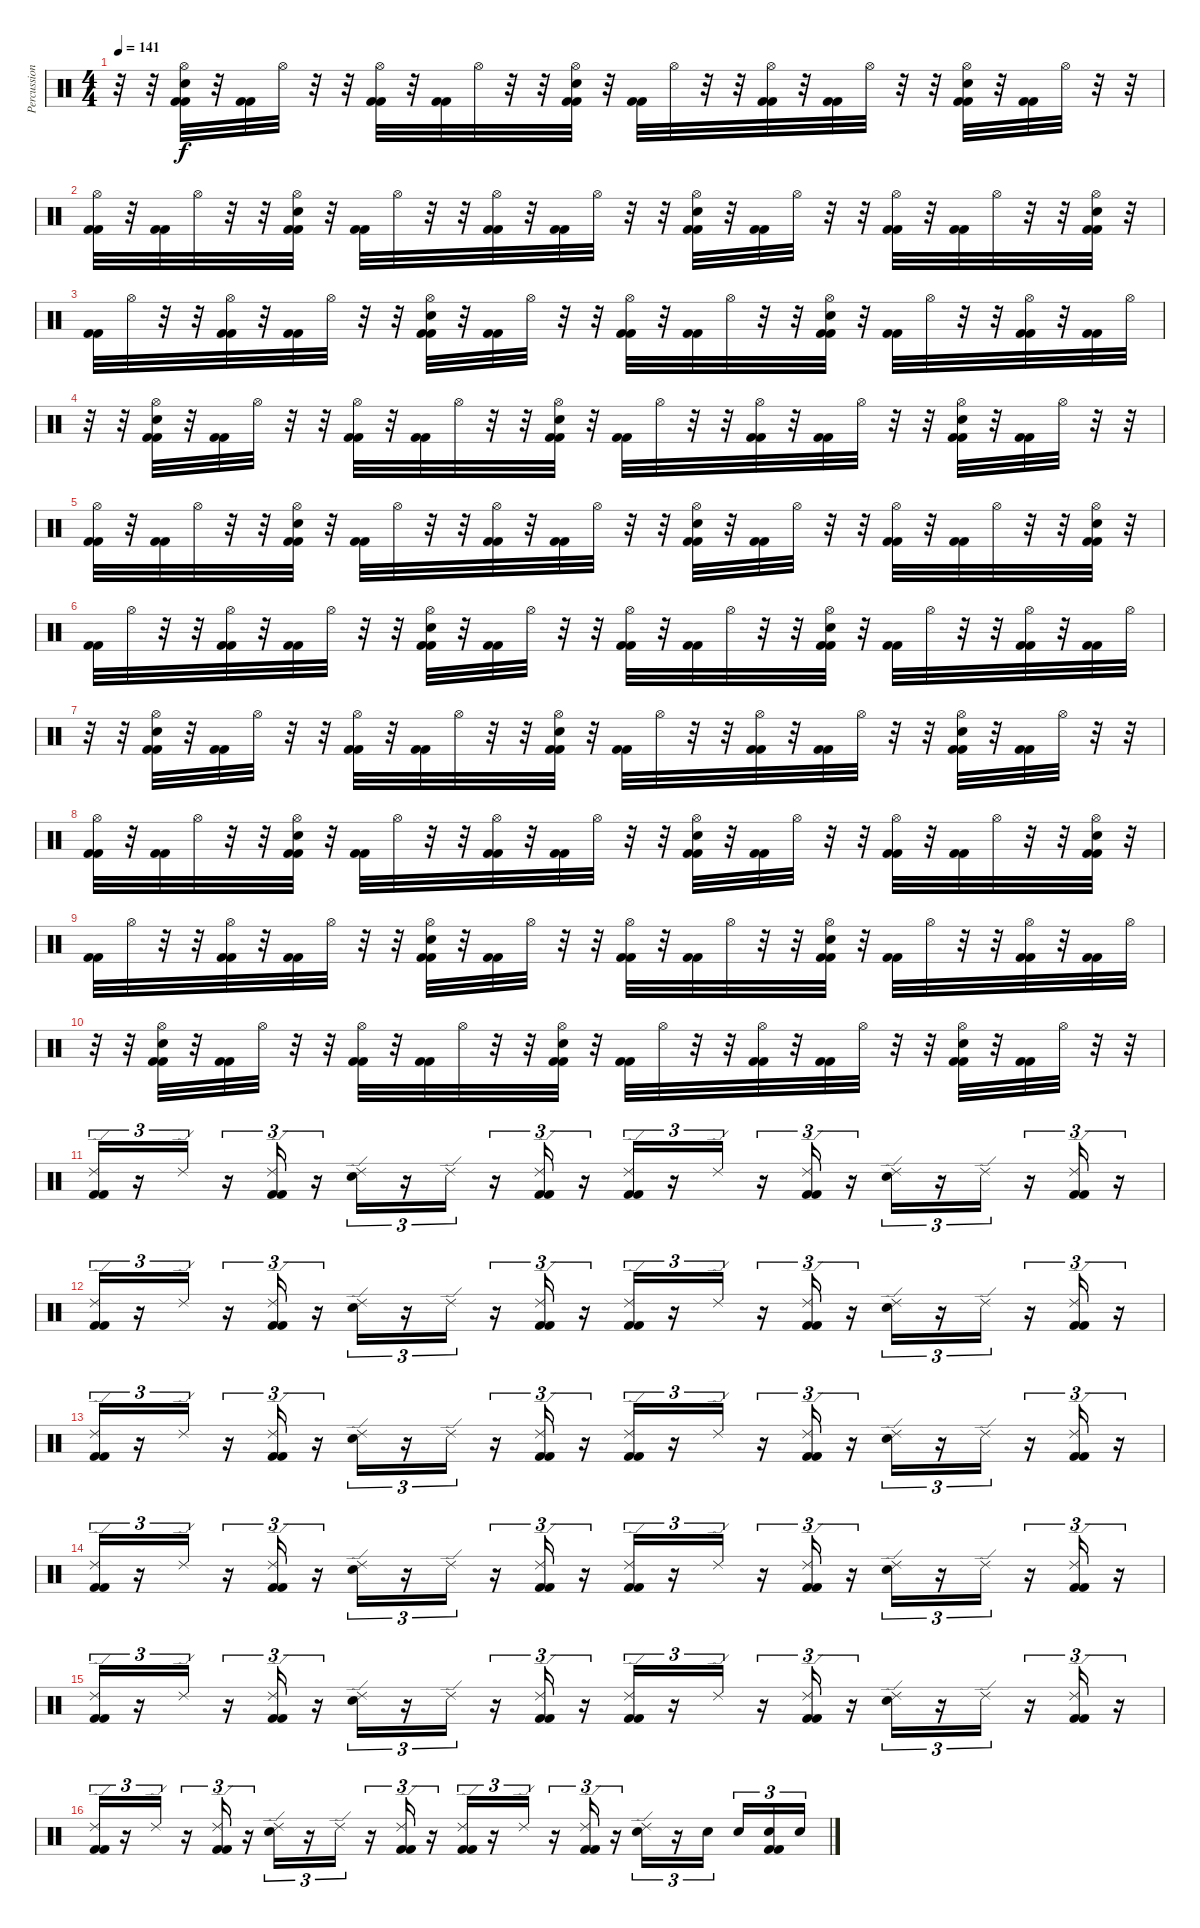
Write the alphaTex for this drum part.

\track ("Percussions" "Percussion") {instrument percussion}
\staff {score}
\articulation defaults
\ts (4 4)
\tempo 141
\clef neutral
\ks c
r.32{dy f} r.32 ("Hi-Hat (open)" "Snare (hit) 2" "Kick (hit) 2" "Kick (hit) 2").32 r.32 ("Kick (hit) 2" "Kick (hit) 2").32 "Hi-Hat (open)".32 r.32 r.32 ("Hi-Hat (open)" "Kick (hit) 2" "Kick (hit) 2").32 r.32 ("Kick (hit) 2" "Kick (hit) 2").32 "Hi-Hat (open)".32 r.32 r.32 ("Hi-Hat (open)" "Snare (hit) 2" "Kick (hit) 2" "Kick (hit) 2").32 r.32 ("Kick (hit) 2" "Kick (hit) 2").32 "Hi-Hat (open)".32 r.32 r.32 ("Hi-Hat (open)" "Kick (hit) 2" "Kick (hit) 2").32 r.32 ("Kick (hit) 2" "Kick (hit) 2").32 "Hi-Hat (open)".32 r.32 r.32 ("Hi-Hat (open)" "Snare (hit) 2" "Kick (hit) 2" "Kick (hit) 2").32 r.32 ("Kick (hit) 2" "Kick (hit) 2").32 "Hi-Hat (open)".32 r.32 r.32 |
("Hi-Hat (open)" "Kick (hit) 2" "Kick (hit) 2").32 r.32 ("Kick (hit) 2" "Kick (hit) 2").32 "Hi-Hat (open)".32 r.32 r.32 ("Hi-Hat (open)" "Snare (hit) 2" "Kick (hit) 2" "Kick (hit) 2").32 r.32 ("Kick (hit) 2" "Kick (hit) 2").32 "Hi-Hat (open)".32 r.32 r.32 ("Hi-Hat (open)" "Kick (hit) 2" "Kick (hit) 2").32 r.32 ("Kick (hit) 2" "Kick (hit) 2").32 "Hi-Hat (open)".32 r.32 r.32 ("Hi-Hat (open)" "Snare (hit) 2" "Kick (hit) 2" "Kick (hit) 2").32 r.32 ("Kick (hit) 2" "Kick (hit) 2").32 "Hi-Hat (open)".32 r.32 r.32 ("Hi-Hat (open)" "Kick (hit) 2" "Kick (hit) 2").32 r.32 ("Kick (hit) 2" "Kick (hit) 2").32 "Hi-Hat (open)".32 r.32 r.32 ("Hi-Hat (open)" "Snare (hit) 2" "Kick (hit) 2" "Kick (hit) 2").32 r.32 |
("Kick (hit) 2" "Kick (hit) 2").32 "Hi-Hat (open)".32 r.32 r.32 ("Hi-Hat (open)" "Kick (hit) 2" "Kick (hit) 2").32 r.32 ("Kick (hit) 2" "Kick (hit) 2").32 "Hi-Hat (open)".32 r.32 r.32 ("Hi-Hat (open)" "Snare (hit) 2" "Kick (hit) 2" "Kick (hit) 2").32 r.32 ("Kick (hit) 2" "Kick (hit) 2").32 "Hi-Hat (open)".32 r.32 r.32 ("Hi-Hat (open)" "Kick (hit) 2" "Kick (hit) 2").32 r.32 ("Kick (hit) 2" "Kick (hit) 2").32 "Hi-Hat (open)".32 r.32 r.32 ("Hi-Hat (open)" "Snare (hit) 2" "Kick (hit) 2" "Kick (hit) 2").32 r.32 ("Kick (hit) 2" "Kick (hit) 2").32 "Hi-Hat (open)".32 r.32 r.32 ("Hi-Hat (open)" "Kick (hit) 2" "Kick (hit) 2").32 r.32 ("Kick (hit) 2" "Kick (hit) 2").32 "Hi-Hat (open)".32 |
r.32 r.32 ("Hi-Hat (open)" "Snare (hit) 2" "Kick (hit) 2" "Kick (hit) 2").32 r.32 ("Kick (hit) 2" "Kick (hit) 2").32 "Hi-Hat (open)".32 r.32 r.32 ("Hi-Hat (open)" "Kick (hit) 2" "Kick (hit) 2").32 r.32 ("Kick (hit) 2" "Kick (hit) 2").32 "Hi-Hat (open)".32 r.32 r.32 ("Hi-Hat (open)" "Snare (hit) 2" "Kick (hit) 2" "Kick (hit) 2").32 r.32 ("Kick (hit) 2" "Kick (hit) 2").32 "Hi-Hat (open)".32 r.32 r.32 ("Hi-Hat (open)" "Kick (hit) 2" "Kick (hit) 2").32 r.32 ("Kick (hit) 2" "Kick (hit) 2").32 "Hi-Hat (open)".32 r.32 r.32 ("Hi-Hat (open)" "Snare (hit) 2" "Kick (hit) 2" "Kick (hit) 2").32 r.32 ("Kick (hit) 2" "Kick (hit) 2").32 "Hi-Hat (open)".32 r.32 r.32 |
("Hi-Hat (open)" "Kick (hit) 2" "Kick (hit) 2").32 r.32 ("Kick (hit) 2" "Kick (hit) 2").32 "Hi-Hat (open)".32 r.32 r.32 ("Hi-Hat (open)" "Snare (hit) 2" "Kick (hit) 2" "Kick (hit) 2").32 r.32 ("Kick (hit) 2" "Kick (hit) 2").32 "Hi-Hat (open)".32 r.32 r.32 ("Hi-Hat (open)" "Kick (hit) 2" "Kick (hit) 2").32 r.32 ("Kick (hit) 2" "Kick (hit) 2").32 "Hi-Hat (open)".32 r.32 r.32 ("Hi-Hat (open)" "Snare (hit) 2" "Kick (hit) 2" "Kick (hit) 2").32 r.32 ("Kick (hit) 2" "Kick (hit) 2").32 "Hi-Hat (open)".32 r.32 r.32 ("Hi-Hat (open)" "Kick (hit) 2" "Kick (hit) 2").32 r.32 ("Kick (hit) 2" "Kick (hit) 2").32 "Hi-Hat (open)".32 r.32 r.32 ("Hi-Hat (open)" "Snare (hit) 2" "Kick (hit) 2" "Kick (hit) 2").32 r.32 |
("Kick (hit) 2" "Kick (hit) 2").32 "Hi-Hat (open)".32 r.32 r.32 ("Hi-Hat (open)" "Kick (hit) 2" "Kick (hit) 2").32 r.32 ("Kick (hit) 2" "Kick (hit) 2").32 "Hi-Hat (open)".32 r.32 r.32 ("Hi-Hat (open)" "Snare (hit) 2" "Kick (hit) 2" "Kick (hit) 2").32 r.32 ("Kick (hit) 2" "Kick (hit) 2").32 "Hi-Hat (open)".32 r.32 r.32 ("Hi-Hat (open)" "Kick (hit) 2" "Kick (hit) 2").32 r.32 ("Kick (hit) 2" "Kick (hit) 2").32 "Hi-Hat (open)".32 r.32 r.32 ("Hi-Hat (open)" "Snare (hit) 2" "Kick (hit) 2" "Kick (hit) 2").32 r.32 ("Kick (hit) 2" "Kick (hit) 2").32 "Hi-Hat (open)".32 r.32 r.32 ("Hi-Hat (open)" "Kick (hit) 2" "Kick (hit) 2").32 r.32 ("Kick (hit) 2" "Kick (hit) 2").32 "Hi-Hat (open)".32 |
r.32 r.32 ("Hi-Hat (open)" "Snare (hit) 2" "Kick (hit) 2" "Kick (hit) 2").32 r.32 ("Kick (hit) 2" "Kick (hit) 2").32 "Hi-Hat (open)".32 r.32 r.32 ("Hi-Hat (open)" "Kick (hit) 2" "Kick (hit) 2").32 r.32 ("Kick (hit) 2" "Kick (hit) 2").32 "Hi-Hat (open)".32 r.32 r.32 ("Hi-Hat (open)" "Snare (hit) 2" "Kick (hit) 2" "Kick (hit) 2").32 r.32 ("Kick (hit) 2" "Kick (hit) 2").32 "Hi-Hat (open)".32 r.32 r.32 ("Hi-Hat (open)" "Kick (hit) 2" "Kick (hit) 2").32 r.32 ("Kick (hit) 2" "Kick (hit) 2").32 "Hi-Hat (open)".32 r.32 r.32 ("Hi-Hat (open)" "Snare (hit) 2" "Kick (hit) 2" "Kick (hit) 2").32 r.32 ("Kick (hit) 2" "Kick (hit) 2").32 "Hi-Hat (open)".32 r.32 r.32 |
("Hi-Hat (open)" "Kick (hit) 2" "Kick (hit) 2").32 r.32 ("Kick (hit) 2" "Kick (hit) 2").32 "Hi-Hat (open)".32 r.32 r.32 ("Hi-Hat (open)" "Snare (hit) 2" "Kick (hit) 2" "Kick (hit) 2").32 r.32 ("Kick (hit) 2" "Kick (hit) 2").32 "Hi-Hat (open)".32 r.32 r.32 ("Hi-Hat (open)" "Kick (hit) 2" "Kick (hit) 2").32 r.32 ("Kick (hit) 2" "Kick (hit) 2").32 "Hi-Hat (open)".32 r.32 r.32 ("Hi-Hat (open)" "Snare (hit) 2" "Kick (hit) 2" "Kick (hit) 2").32 r.32 ("Kick (hit) 2" "Kick (hit) 2").32 "Hi-Hat (open)".32 r.32 r.32 ("Hi-Hat (open)" "Kick (hit) 2" "Kick (hit) 2").32 r.32 ("Kick (hit) 2" "Kick (hit) 2").32 "Hi-Hat (open)".32 r.32 r.32 ("Hi-Hat (open)" "Snare (hit) 2" "Kick (hit) 2" "Kick (hit) 2").32 r.32 |
("Kick (hit) 2" "Kick (hit) 2").32 "Hi-Hat (open)".32 r.32 r.32 ("Hi-Hat (open)" "Kick (hit) 2" "Kick (hit) 2").32 r.32 ("Kick (hit) 2" "Kick (hit) 2").32 "Hi-Hat (open)".32 r.32 r.32 ("Hi-Hat (open)" "Snare (hit) 2" "Kick (hit) 2" "Kick (hit) 2").32 r.32 ("Kick (hit) 2" "Kick (hit) 2").32 "Hi-Hat (open)".32 r.32 r.32 ("Hi-Hat (open)" "Kick (hit) 2" "Kick (hit) 2").32 r.32 ("Kick (hit) 2" "Kick (hit) 2").32 "Hi-Hat (open)".32 r.32 r.32 ("Hi-Hat (open)" "Snare (hit) 2" "Kick (hit) 2" "Kick (hit) 2").32 r.32 ("Kick (hit) 2" "Kick (hit) 2").32 "Hi-Hat (open)".32 r.32 r.32 ("Hi-Hat (open)" "Kick (hit) 2" "Kick (hit) 2").32 r.32 ("Kick (hit) 2" "Kick (hit) 2").32 "Hi-Hat (open)".32 |
r.32 r.32 ("Hi-Hat (open)" "Snare (hit) 2" "Kick (hit) 2" "Kick (hit) 2").32 r.32 ("Kick (hit) 2" "Kick (hit) 2").32 "Hi-Hat (open)".32 r.32 r.32 ("Hi-Hat (open)" "Kick (hit) 2" "Kick (hit) 2").32 r.32 ("Kick (hit) 2" "Kick (hit) 2").32 "Hi-Hat (open)".32 r.32 r.32 ("Hi-Hat (open)" "Snare (hit) 2" "Kick (hit) 2" "Kick (hit) 2").32 r.32 ("Kick (hit) 2" "Kick (hit) 2").32 "Hi-Hat (open)".32 r.32 r.32 ("Hi-Hat (open)" "Kick (hit) 2" "Kick (hit) 2").32 r.32 ("Kick (hit) 2" "Kick (hit) 2").32 "Hi-Hat (open)".32 r.32 r.32 ("Hi-Hat (open)" "Snare (hit) 2" "Kick (hit) 2" "Kick (hit) 2").32 r.32 ("Kick (hit) 2" "Kick (hit) 2").32 "Hi-Hat (open)".32 r.32 r.32 |
("Ride (edge) 2" "Kick (hit) 2" "Kick (hit) 2").16{tu (3 2)} r.16{tu (3 2)} "Ride (edge) 2".16{tu (3 2)} r.16{tu (3 2)} ("Ride (edge) 2" "Kick (hit) 2" "Kick (hit) 2").16{tu (3 2)} r.16{tu (3 2)} ("Ride (edge) 2" "Snare (hit) 2").16{tu (3 2)} r.16{tu (3 2)} "Ride (edge) 2".16{tu (3 2)} r.16{tu (3 2)} ("Ride (edge) 2" "Kick (hit) 2" "Kick (hit) 2").16{tu (3 2)} r.16{tu (3 2)} ("Ride (edge) 2" "Kick (hit) 2" "Kick (hit) 2").16{tu (3 2)} r.16{tu (3 2)} "Ride (edge) 2".16{tu (3 2)} r.16{tu (3 2)} ("Ride (edge) 2" "Kick (hit) 2" "Kick (hit) 2").16{tu (3 2)} r.16{tu (3 2)} ("Ride (edge) 2" "Snare (hit) 2").16{tu (3 2)} r.16{tu (3 2)} "Ride (edge) 2".16{tu (3 2)} r.16{tu (3 2)} ("Ride (edge) 2" "Kick (hit) 2" "Kick (hit) 2").16{tu (3 2)} r.16{tu (3 2)} |
("Ride (edge) 2" "Kick (hit) 2" "Kick (hit) 2").16{tu (3 2)} r.16{tu (3 2)} "Ride (edge) 2".16{tu (3 2)} r.16{tu (3 2)} ("Ride (edge) 2" "Kick (hit) 2" "Kick (hit) 2").16{tu (3 2)} r.16{tu (3 2)} ("Ride (edge) 2" "Snare (hit) 2").16{tu (3 2)} r.16{tu (3 2)} "Ride (edge) 2".16{tu (3 2)} r.16{tu (3 2)} ("Ride (edge) 2" "Kick (hit) 2" "Kick (hit) 2").16{tu (3 2)} r.16{tu (3 2)} ("Ride (edge) 2" "Kick (hit) 2" "Kick (hit) 2").16{tu (3 2)} r.16{tu (3 2)} "Ride (edge) 2".16{tu (3 2)} r.16{tu (3 2)} ("Ride (edge) 2" "Kick (hit) 2" "Kick (hit) 2").16{tu (3 2)} r.16{tu (3 2)} ("Ride (edge) 2" "Snare (hit) 2").16{tu (3 2)} r.16{tu (3 2)} "Ride (edge) 2".16{tu (3 2)} r.16{tu (3 2)} ("Ride (edge) 2" "Kick (hit) 2" "Kick (hit) 2").16{tu (3 2)} r.16{tu (3 2)} |
("Ride (edge) 2" "Kick (hit) 2" "Kick (hit) 2").16{tu (3 2)} r.16{tu (3 2)} "Ride (edge) 2".16{tu (3 2)} r.16{tu (3 2)} ("Ride (edge) 2" "Kick (hit) 2" "Kick (hit) 2").16{tu (3 2)} r.16{tu (3 2)} ("Ride (edge) 2" "Snare (hit) 2").16{tu (3 2)} r.16{tu (3 2)} "Ride (edge) 2".16{tu (3 2)} r.16{tu (3 2)} ("Ride (edge) 2" "Kick (hit) 2" "Kick (hit) 2").16{tu (3 2)} r.16{tu (3 2)} ("Ride (edge) 2" "Kick (hit) 2" "Kick (hit) 2").16{tu (3 2)} r.16{tu (3 2)} "Ride (edge) 2".16{tu (3 2)} r.16{tu (3 2)} ("Ride (edge) 2" "Kick (hit) 2" "Kick (hit) 2").16{tu (3 2)} r.16{tu (3 2)} ("Ride (edge) 2" "Snare (hit) 2").16{tu (3 2)} r.16{tu (3 2)} "Ride (edge) 2".16{tu (3 2)} r.16{tu (3 2)} ("Ride (edge) 2" "Kick (hit) 2" "Kick (hit) 2").16{tu (3 2)} r.16{tu (3 2)} |
("Ride (edge) 2" "Kick (hit) 2" "Kick (hit) 2").16{tu (3 2)} r.16{tu (3 2)} "Ride (edge) 2".16{tu (3 2)} r.16{tu (3 2)} ("Ride (edge) 2" "Kick (hit) 2" "Kick (hit) 2").16{tu (3 2)} r.16{tu (3 2)} ("Ride (edge) 2" "Snare (hit) 2").16{tu (3 2)} r.16{tu (3 2)} "Ride (edge) 2".16{tu (3 2)} r.16{tu (3 2)} ("Ride (edge) 2" "Kick (hit) 2" "Kick (hit) 2").16{tu (3 2)} r.16{tu (3 2)} ("Ride (edge) 2" "Kick (hit) 2" "Kick (hit) 2").16{tu (3 2)} r.16{tu (3 2)} "Ride (edge) 2".16{tu (3 2)} r.16{tu (3 2)} ("Ride (edge) 2" "Kick (hit) 2" "Kick (hit) 2").16{tu (3 2)} r.16{tu (3 2)} ("Ride (edge) 2" "Snare (hit) 2").16{tu (3 2)} r.16{tu (3 2)} "Ride (edge) 2".16{tu (3 2)} r.16{tu (3 2)} ("Ride (edge) 2" "Kick (hit) 2" "Kick (hit) 2").16{tu (3 2)} r.16{tu (3 2)} |
("Ride (edge) 2" "Kick (hit) 2" "Kick (hit) 2").16{tu (3 2)} r.16{tu (3 2)} "Ride (edge) 2".16{tu (3 2)} r.16{tu (3 2)} ("Ride (edge) 2" "Kick (hit) 2" "Kick (hit) 2").16{tu (3 2)} r.16{tu (3 2)} ("Ride (edge) 2" "Snare (hit) 2").16{tu (3 2)} r.16{tu (3 2)} "Ride (edge) 2".16{tu (3 2)} r.16{tu (3 2)} ("Ride (edge) 2" "Kick (hit) 2" "Kick (hit) 2").16{tu (3 2)} r.16{tu (3 2)} ("Ride (edge) 2" "Kick (hit) 2" "Kick (hit) 2").16{tu (3 2)} r.16{tu (3 2)} "Ride (edge) 2".16{tu (3 2)} r.16{tu (3 2)} ("Ride (edge) 2" "Kick (hit) 2" "Kick (hit) 2").16{tu (3 2)} r.16{tu (3 2)} ("Ride (edge) 2" "Snare (hit) 2").16{tu (3 2)} r.16{tu (3 2)} "Ride (edge) 2".16{tu (3 2)} r.16{tu (3 2)} ("Ride (edge) 2" "Kick (hit) 2" "Kick (hit) 2").16{tu (3 2)} r.16{tu (3 2)} |
("Ride (edge) 2" "Kick (hit) 2" "Kick (hit) 2").16{tu (3 2)} r.16{tu (3 2)} "Ride (edge) 2".16{tu (3 2)} r.16{tu (3 2)} ("Ride (edge) 2" "Kick (hit) 2" "Kick (hit) 2").16{tu (3 2)} r.16{tu (3 2)} ("Ride (edge) 2" "Snare (hit) 2").16{tu (3 2)} r.16{tu (3 2)} "Ride (edge) 2".16{tu (3 2)} r.16{tu (3 2)} ("Ride (edge) 2" "Kick (hit) 2" "Kick (hit) 2").16{tu (3 2)} r.16{tu (3 2)} ("Ride (edge) 2" "Kick (hit) 2" "Kick (hit) 2").16{tu (3 2)} r.16{tu (3 2)} "Ride (edge) 2".16{tu (3 2)} r.16{tu (3 2)} ("Ride (edge) 2" "Kick (hit) 2" "Kick (hit) 2").16{tu (3 2)} r.16{tu (3 2)} ("Ride (edge) 2" "Snare (hit) 2").16{tu (3 2)} r.16{tu (3 2)} "Snare (hit) 2".16{tu (3 2)} "Snare (hit) 2".16{tu (3 2)} ("Snare (hit) 2" "Kick (hit) 2" "Kick (hit) 2").16{tu (3 2)} "Snare (hit) 2".16{tu (3 2)}
